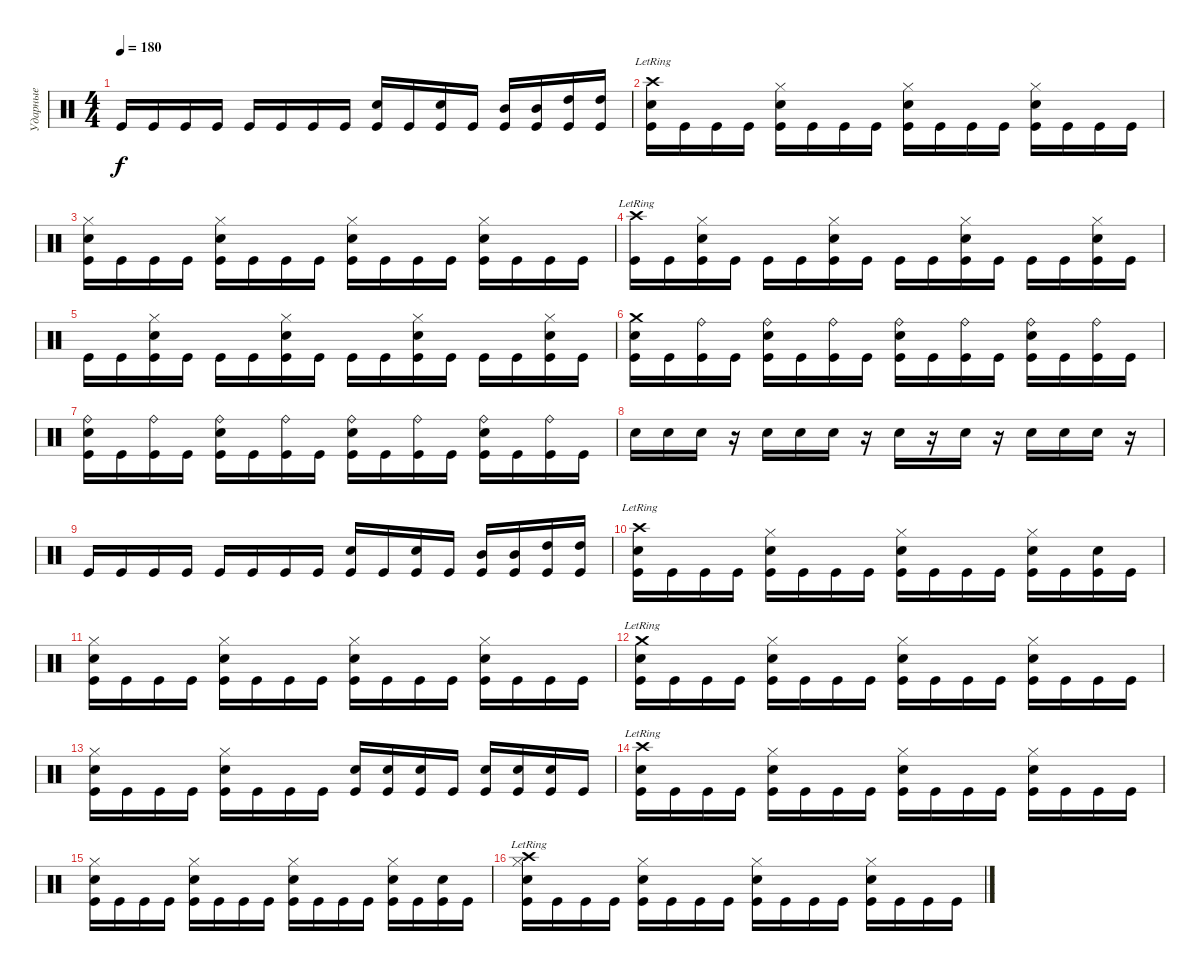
\track ("Ударные" "Ударные") {instrument percussion}
\staff {score}
\articulation defaults
\ts (4 4)
\tempo 180
\clef neutral
\ks c "Kick (hit)".16{dy f} "Kick (hit)".16 "Kick (hit)".16 "Kick (hit)".16 "Kick (hit)".16 "Kick (hit)".16 "Kick (hit)".16 "Kick (hit)".16
("Electric Snare (hit)" "Kick (hit)").16 "Kick (hit)".16 ("Electric Snare (hit)" "Kick (hit)").16 "Kick (hit)".16 ("Mid Tom (hit)" "Kick (hit)").16 ("Mid Tom (hit)" "Kick (hit)").16 ("High Tom (hit)" "Kick (hit)").16 ("High Tom (hit)" "Kick (hit)").16 |
("Crash high (hit)"{lr} "Electric Snare (hit)" "Kick (hit)").16 "Kick (hit)".16 "Kick (hit)".16 "Kick (hit)".16 ("Hi-Hat (closed)" "Electric Snare (hit)" "Kick (hit)").16 "Kick (hit)".16 "Kick (hit)".16 "Kick (hit)".16 ("Hi-Hat (closed)" "Electric Snare (hit)" "Kick (hit)").16 "Kick (hit)".16 "Kick (hit)".16 "Kick (hit)".16 ("Hi-Hat (closed)" "Electric Snare (hit)" "Kick (hit)").16 "Kick (hit)".16 "Kick (hit)".16 "Kick (hit)".16 |
("Hi-Hat (closed)" "Electric Snare (hit)" "Kick (hit)").16 "Kick (hit)".16 "Kick (hit)".16 "Kick (hit)".16 ("Hi-Hat (closed)" "Electric Snare (hit)" "Kick (hit)").16 "Kick (hit)".16 "Kick (hit)".16 "Kick (hit)".16 ("Hi-Hat (closed)" "Electric Snare (hit)" "Kick (hit)").16 "Kick (hit)".16 "Kick (hit)".16 "Kick (hit)".16 ("Hi-Hat (closed)" "Electric Snare (hit)" "Kick (hit)").16 "Kick (hit)".16 "Kick (hit)".16 "Kick (hit)".16 |
("Crash high (hit)"{lr} "Kick (hit)").16 "Kick (hit)".16 ("Hi-Hat (closed)" "Electric Snare (hit)" "Kick (hit)").16 "Kick (hit)".16 "Kick (hit)".16 "Kick (hit)".16 ("Hi-Hat (closed)" "Electric Snare (hit)" "Kick (hit)").16 "Kick (hit)".16 "Kick (hit)".16 "Kick (hit)".16 ("Hi-Hat (closed)" "Electric Snare (hit)" "Kick (hit)").16 "Kick (hit)".16 "Kick (hit)".16 "Kick (hit)".16 ("Hi-Hat (closed)" "Electric Snare (hit)" "Kick (hit)").16 "Kick (hit)".16 |
"Kick (hit)".16 "Kick (hit)".16 ("Hi-Hat (closed)" "Electric Snare (hit)" "Kick (hit)").16 "Kick (hit)".16 "Kick (hit)".16 "Kick (hit)".16 ("Hi-Hat (closed)" "Electric Snare (hit)" "Kick (hit)").16 "Kick (hit)".16 "Kick (hit)".16 "Kick (hit)".16 ("Hi-Hat (closed)" "Electric Snare (hit)" "Kick (hit)").16 "Kick (hit)".16 "Kick (hit)".16 "Kick (hit)".16 ("Hi-Hat (closed)" "Electric Snare (hit)" "Kick (hit)").16 "Kick (hit)".16 |
("Crash medium (hit)" "Electric Snare (hit)" "Kick (hit)").16 "Kick (hit)".16 ("Ride (bell)" "Kick (hit)").16 "Kick (hit)".16 ("Ride (bell)" "Electric Snare (hit)" "Kick (hit)").16 "Kick (hit)".16 ("Ride (bell)" "Kick (hit)").16 "Kick (hit)".16 ("Ride (bell)" "Electric Snare (hit)" "Kick (hit)").16 "Kick (hit)".16 ("Ride (bell)" "Kick (hit)").16 "Kick (hit)".16 ("Ride (bell)" "Electric Snare (hit)" "Kick (hit)").16 "Kick (hit)".16 ("Ride (bell)" "Kick (hit)").16 "Kick (hit)".16 |
("Ride (bell)" "Electric Snare (hit)" "Kick (hit)").16 "Kick (hit)".16 ("Ride (bell)" "Kick (hit)").16 "Kick (hit)".16 ("Ride (bell)" "Electric Snare (hit)" "Kick (hit)").16 "Kick (hit)".16 ("Ride (bell)" "Kick (hit)").16 "Kick (hit)".16 ("Ride (bell)" "Electric Snare (hit)" "Kick (hit)").16 "Kick (hit)".16 ("Ride (bell)" "Kick (hit)").16 "Kick (hit)".16 ("Ride (bell)" "Electric Snare (hit)" "Kick (hit)").16 "Kick (hit)".16 ("Ride (bell)" "Kick (hit)").16 "Kick (hit)".16 |
"Electric Snare (hit)".16 "Electric Snare (hit)".16 "Electric Snare (hit)".16 r.16 "Electric Snare (hit)".16 "Electric Snare (hit)".16 "Electric Snare (hit)".16 r.16 "Electric Snare (hit)".16 r.16 "Electric Snare (hit)".16 r.16 "Electric Snare (hit)".16 "Electric Snare (hit)".16 "Electric Snare (hit)".16 r.16 |
"Kick (hit)".16 "Kick (hit)".16 "Kick (hit)".16 "Kick (hit)".16 "Kick (hit)".16 "Kick (hit)".16 "Kick (hit)".16 "Kick (hit)".16 ("Electric Snare (hit)" "Kick (hit)").16 "Kick (hit)".16 ("Electric Snare (hit)" "Kick (hit)").16 "Kick (hit)".16 ("Mid Tom (hit)" "Kick (hit)").16 ("Mid Tom (hit)" "Kick (hit)").16 ("High Tom (hit)" "Kick (hit)").16 ("High Tom (hit)" "Kick (hit)").16 |
("Crash high (hit)"{lr} "Electric Snare (hit)" "Kick (hit)").16 "Kick (hit)".16 "Kick (hit)".16 "Kick (hit)".16 ("Hi-Hat (closed)" "Electric Snare (hit)" "Kick (hit)").16 "Kick (hit)".16 "Kick (hit)".16 "Kick (hit)".16 ("Hi-Hat (closed)" "Electric Snare (hit)" "Kick (hit)").16 "Kick (hit)".16 "Kick (hit)".16 "Kick (hit)".16 ("Hi-Hat (closed)" "Electric Snare (hit)" "Kick (hit)").16 "Kick (hit)".16 ("Electric Snare (hit)" "Kick (hit)").16 "Kick (hit)".16 |
("Hi-Hat (closed)" "Electric Snare (hit)" "Kick (hit)").16 "Kick (hit)".16 "Kick (hit)".16 "Kick (hit)".16 ("Hi-Hat (closed)" "Electric Snare (hit)" "Kick (hit)").16 "Kick (hit)".16 "Kick (hit)".16 "Kick (hit)".16 ("Hi-Hat (closed)" "Electric Snare (hit)" "Kick (hit)").16 "Kick (hit)".16 "Kick (hit)".16 "Kick (hit)".16 ("Hi-Hat (closed)" "Electric Snare (hit)" "Kick (hit)").16 "Kick (hit)".16 "Kick (hit)".16 "Kick (hit)".16 |
("Crash medium (hit)"{lr} "Electric Snare (hit)" "Kick (hit)").16 "Kick (hit)".16 "Kick (hit)".16 "Kick (hit)".16 ("Hi-Hat (closed)" "Electric Snare (hit)" "Kick (hit)").16 "Kick (hit)".16 "Kick (hit)".16 "Kick (hit)".16 ("Hi-Hat (closed)" "Electric Snare (hit)" "Kick (hit)").16 "Kick (hit)".16 "Kick (hit)".16 "Kick (hit)".16 ("Hi-Hat (closed)" "Electric Snare (hit)" "Kick (hit)").16 "Kick (hit)".16 "Kick (hit)".16 "Kick (hit)".16 |
("Hi-Hat (closed)" "Electric Snare (hit)" "Kick (hit)").16 "Kick (hit)".16 "Kick (hit)".16 "Kick (hit)".16 ("Hi-Hat (closed)" "Electric Snare (hit)" "Kick (hit)").16 "Kick (hit)".16 "Kick (hit)".16 "Kick (hit)".16 ("Electric Snare (hit)" "Kick (hit)").16 ("Electric Snare (hit)" "Kick (hit)").16 ("Electric Snare (hit)" "Kick (hit)").16 "Kick (hit)".16 ("Electric Snare (hit)" "Kick (hit)").16 ("Electric Snare (hit)" "Kick (hit)").16 ("Electric Snare (hit)" "Kick (hit)").16 "Kick (hit)".16 |
("Crash high (hit)"{lr} "Electric Snare (hit)" "Kick (hit)").16 "Kick (hit)".16 "Kick (hit)".16 "Kick (hit)".16 ("Hi-Hat (closed)" "Electric Snare (hit)" "Kick (hit)").16 "Kick (hit)".16 "Kick (hit)".16 "Kick (hit)".16 ("Hi-Hat (closed)" "Electric Snare (hit)" "Kick (hit)").16 "Kick (hit)".16 "Kick (hit)".16 "Kick (hit)".16 ("Hi-Hat (closed)" "Electric Snare (hit)" "Kick (hit)").16 "Kick (hit)".16 "Kick (hit)".16 "Kick (hit)".16 |
("Hi-Hat (closed)" "Electric Snare (hit)" "Kick (hit)").16 "Kick (hit)".16 "Kick (hit)".16 "Kick (hit)".16 ("Hi-Hat (closed)" "Electric Snare (hit)" "Kick (hit)").16 "Kick (hit)".16 "Kick (hit)".16 "Kick (hit)".16 ("Hi-Hat (closed)" "Electric Snare (hit)" "Kick (hit)").16 "Kick (hit)".16 "Kick (hit)".16 "Kick (hit)".16 ("Hi-Hat (closed)" "Electric Snare (hit)" "Kick (hit)").16 "Kick (hit)".16 ("Electric Snare (hit)" "Kick (hit)").16 "Kick (hit)".16 |
("Crash high (hit)"{lr} "Hi-Hat (closed)" "Electric Snare (hit)" "Kick (hit)").16 "Kick (hit)".16 "Kick (hit)".16 "Kick (hit)".16 ("Hi-Hat (closed)" "Electric Snare (hit)" "Kick (hit)").16 "Kick (hit)".16 "Kick (hit)".16 "Kick (hit)".16 ("Hi-Hat (closed)" "Electric Snare (hit)" "Kick (hit)").16 "Kick (hit)".16 "Kick (hit)".16 "Kick (hit)".16 ("Hi-Hat (closed)" "Electric Snare (hit)" "Kick (hit)").16 "Kick (hit)".16 "Kick (hit)".16 "Kick (hit)".16
